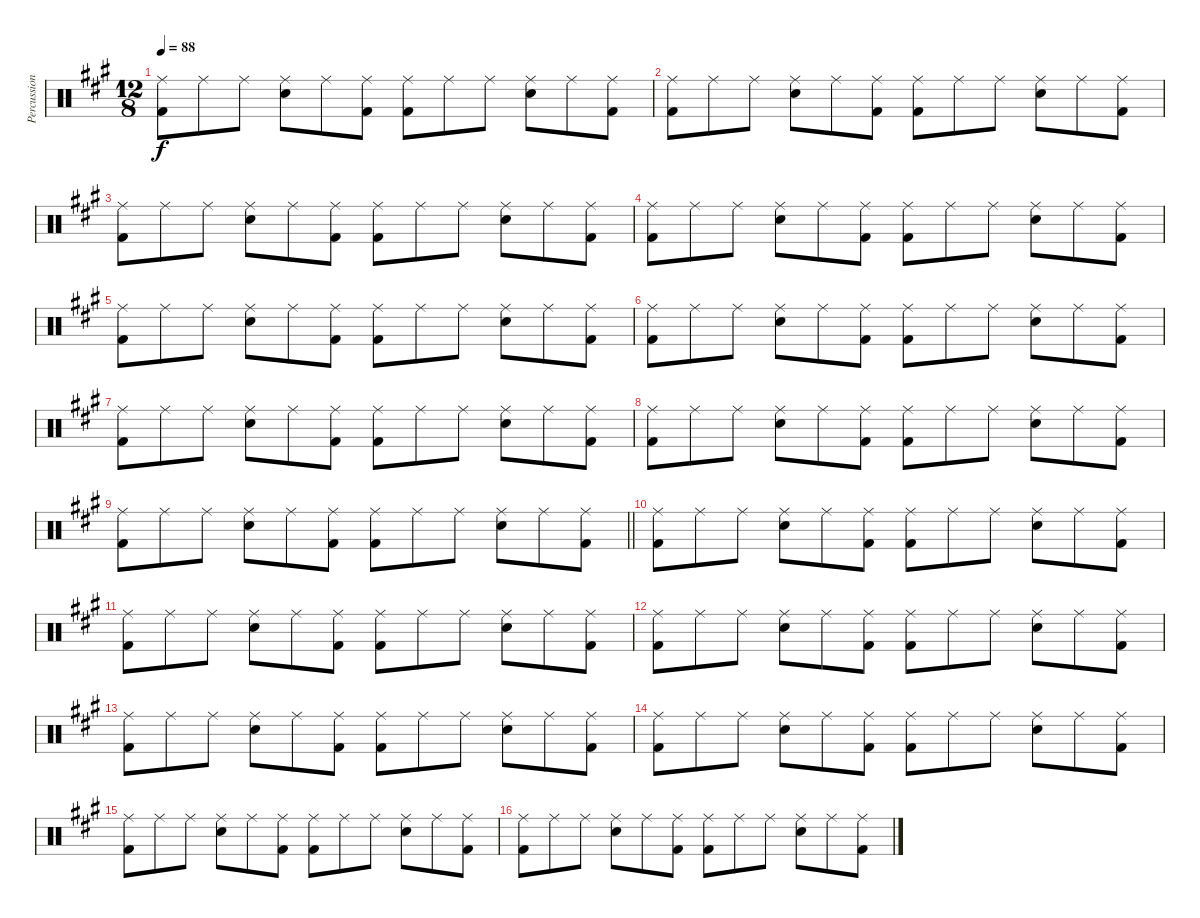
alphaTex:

\track ("Percussion" "Percussion") {instrument percussion}
\staff {score}
\articulation defaults
\ts (12 8)
\tempo 88
\clef neutral
\ks a
("Ride (middle)" "Kick (hit) 2").8{dy f} "Ride (middle)".8 "Ride (middle)".8 ("Ride (middle)" "Snare (hit) 2").8 "Ride (middle)".8 ("Ride (middle)" "Kick (hit) 2").8 ("Ride (middle)" "Kick (hit) 2").8 "Ride (middle)".8 "Ride (middle)".8 ("Ride (middle)" "Snare (hit) 2").8 "Ride (middle)".8 ("Ride (middle)" "Kick (hit) 2").8 |
("Ride (middle)" "Kick (hit) 2").8 "Ride (middle)".8 "Ride (middle)".8 ("Ride (middle)" "Snare (hit) 2").8 "Ride (middle)".8 ("Ride (middle)" "Kick (hit) 2").8 ("Ride (middle)" "Kick (hit) 2").8 "Ride (middle)".8 "Ride (middle)".8 ("Ride (middle)" "Snare (hit) 2").8 "Ride (middle)".8 ("Ride (middle)" "Kick (hit) 2").8 |
("Ride (middle)" "Kick (hit) 2").8 "Ride (middle)".8 "Ride (middle)".8 ("Ride (middle)" "Snare (hit) 2").8 "Ride (middle)".8 ("Ride (middle)" "Kick (hit) 2").8 ("Ride (middle)" "Kick (hit) 2").8 "Ride (middle)".8 "Ride (middle)".8 ("Ride (middle)" "Snare (hit) 2").8 "Ride (middle)".8 ("Ride (middle)" "Kick (hit) 2").8 |
("Ride (middle)" "Kick (hit) 2").8 "Ride (middle)".8 "Ride (middle)".8 ("Ride (middle)" "Snare (hit) 2").8 "Ride (middle)".8 ("Ride (middle)" "Kick (hit) 2").8 ("Ride (middle)" "Kick (hit) 2").8 "Ride (middle)".8 "Ride (middle)".8 ("Ride (middle)" "Snare (hit) 2").8 "Ride (middle)".8 ("Ride (middle)" "Kick (hit) 2").8 |
("Ride (middle)" "Kick (hit) 2").8 "Ride (middle)".8 "Ride (middle)".8 ("Ride (middle)" "Snare (hit) 2").8 "Ride (middle)".8 ("Ride (middle)" "Kick (hit) 2").8 ("Ride (middle)" "Kick (hit) 2").8 "Ride (middle)".8 "Ride (middle)".8 ("Ride (middle)" "Snare (hit) 2").8 "Ride (middle)".8 ("Ride (middle)" "Kick (hit) 2").8 |
("Ride (middle)" "Kick (hit) 2").8 "Ride (middle)".8 "Ride (middle)".8 ("Ride (middle)" "Snare (hit) 2").8 "Ride (middle)".8 ("Ride (middle)" "Kick (hit) 2").8 ("Ride (middle)" "Kick (hit) 2").8 "Ride (middle)".8 "Ride (middle)".8 ("Ride (middle)" "Snare (hit) 2").8 "Ride (middle)".8 ("Ride (middle)" "Kick (hit) 2").8 |
("Ride (middle)" "Kick (hit) 2").8 "Ride (middle)".8 "Ride (middle)".8 ("Ride (middle)" "Snare (hit) 2").8 "Ride (middle)".8 ("Ride (middle)" "Kick (hit) 2").8 ("Ride (middle)" "Kick (hit) 2").8 "Ride (middle)".8 "Ride (middle)".8 ("Ride (middle)" "Snare (hit) 2").8 "Ride (middle)".8 ("Ride (middle)" "Kick (hit) 2").8 |
("Ride (middle)" "Kick (hit) 2").8 "Ride (middle)".8 "Ride (middle)".8 ("Ride (middle)" "Snare (hit) 2").8 "Ride (middle)".8 ("Ride (middle)" "Kick (hit) 2").8 ("Ride (middle)" "Kick (hit) 2").8 "Ride (middle)".8 "Ride (middle)".8 ("Ride (middle)" "Snare (hit) 2").8 "Ride (middle)".8 ("Ride (middle)" "Kick (hit) 2").8 |
\barLineRight lightlight
("Ride (middle)" "Kick (hit) 2").8 "Ride (middle)".8 "Ride (middle)".8 ("Ride (middle)" "Snare (hit) 2").8 "Ride (middle)".8 ("Ride (middle)" "Kick (hit) 2").8 ("Ride (middle)" "Kick (hit) 2").8 "Ride (middle)".8 "Ride (middle)".8 ("Ride (middle)" "Snare (hit) 2").8 "Ride (middle)".8 ("Ride (middle)" "Kick (hit) 2").8 |
("Ride (middle)" "Kick (hit) 2").8 "Ride (middle)".8 "Ride (middle)".8 ("Ride (middle)" "Snare (hit) 2").8 "Ride (middle)".8 ("Ride (middle)" "Kick (hit) 2").8 ("Ride (middle)" "Kick (hit) 2").8 "Ride (middle)".8 "Ride (middle)".8 ("Ride (middle)" "Snare (hit) 2").8 "Ride (middle)".8 ("Ride (middle)" "Kick (hit) 2").8 |
("Ride (middle)" "Kick (hit) 2").8 "Ride (middle)".8 "Ride (middle)".8 ("Ride (middle)" "Snare (hit) 2").8 "Ride (middle)".8 ("Ride (middle)" "Kick (hit) 2").8 ("Ride (middle)" "Kick (hit) 2").8 "Ride (middle)".8 "Ride (middle)".8 ("Ride (middle)" "Snare (hit) 2").8 "Ride (middle)".8 ("Ride (middle)" "Kick (hit) 2").8 |
("Ride (middle)" "Kick (hit) 2").8 "Ride (middle)".8 "Ride (middle)".8 ("Ride (middle)" "Snare (hit) 2").8 "Ride (middle)".8 ("Ride (middle)" "Kick (hit) 2").8 ("Ride (middle)" "Kick (hit) 2").8 "Ride (middle)".8 "Ride (middle)".8 ("Ride (middle)" "Snare (hit) 2").8 "Ride (middle)".8 ("Ride (middle)" "Kick (hit) 2").8 |
("Ride (middle)" "Kick (hit) 2").8 "Ride (middle)".8 "Ride (middle)".8 ("Ride (middle)" "Snare (hit) 2").8 "Ride (middle)".8 ("Ride (middle)" "Kick (hit) 2").8 ("Ride (middle)" "Kick (hit) 2").8 "Ride (middle)".8 "Ride (middle)".8 ("Ride (middle)" "Snare (hit) 2").8 "Ride (middle)".8 ("Ride (middle)" "Kick (hit) 2").8 |
("Ride (middle)" "Kick (hit) 2").8 "Ride (middle)".8 "Ride (middle)".8 ("Ride (middle)" "Snare (hit) 2").8 "Ride (middle)".8 ("Ride (middle)" "Kick (hit) 2").8 ("Ride (middle)" "Kick (hit) 2").8 "Ride (middle)".8 "Ride (middle)".8 ("Ride (middle)" "Snare (hit) 2").8 "Ride (middle)".8 ("Ride (middle)" "Kick (hit) 2").8 |
("Ride (middle)" "Kick (hit) 2").8 "Ride (middle)".8 "Ride (middle)".8 ("Ride (middle)" "Snare (hit) 2").8 "Ride (middle)".8 ("Ride (middle)" "Kick (hit) 2").8 ("Ride (middle)" "Kick (hit) 2").8 "Ride (middle)".8 "Ride (middle)".8 ("Ride (middle)" "Snare (hit) 2").8 "Ride (middle)".8 ("Ride (middle)" "Kick (hit) 2").8 |
("Ride (middle)" "Kick (hit) 2").8 "Ride (middle)".8 "Ride (middle)".8 ("Ride (middle)" "Snare (hit) 2").8 "Ride (middle)".8 ("Ride (middle)" "Kick (hit) 2").8 ("Ride (middle)" "Kick (hit) 2").8 "Ride (middle)".8 "Ride (middle)".8 ("Ride (middle)" "Snare (hit) 2").8 "Ride (middle)".8 ("Ride (middle)" "Kick (hit) 2").8
